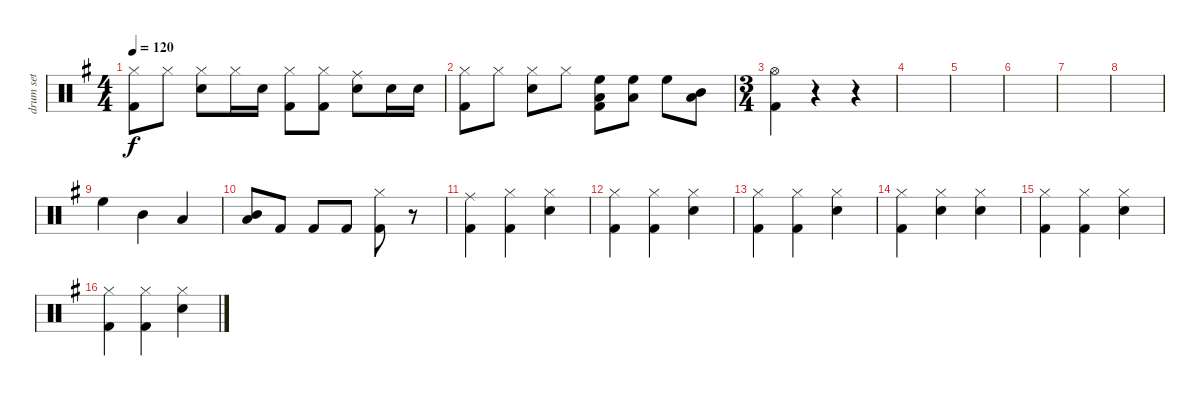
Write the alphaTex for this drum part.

\track ("drum set" "drum set") {instrument percussion}
\staff {score}
\articulation defaults
\ts (4 4)
\tempo 120
\clef neutral
\ks g
("Hi-Hat (closed)" "Kick (hit) 2").8{dy f} "Hi-Hat (closed)".8 ("Hi-Hat (closed)" "Snare (hit) 2").8 "Hi-Hat (closed)".16 "Snare (hit) 2".16 ("Hi-Hat (closed)" "Kick (hit) 2").8 ("Hi-Hat (closed)" "Kick (hit) 2").8 ("Ride (middle)" "Snare (hit) 2").8 "Snare (hit) 2".16 "Snare (hit) 2".16 |
("Hi-Hat (closed)" "Kick (hit) 2").8 "Hi-Hat (closed)".8 ("Hi-Hat (closed)" "Snare (hit) 2").8 "Hi-Hat (closed)".8 ("High Floor Tom (hit)" "Low Tom (hit)" "Kick (hit) 2").8 ("High Floor Tom (hit)" "Low Tom (hit)").8 "High Floor Tom (hit)".8 ("Mid Tom (hit)" "Low Tom (hit)").8 |
\ts (3 4)
("Hi-Hat (open)" "Kick (hit) 2").4 r.4 r.4 |
|
|
|
|
|
"High Floor Tom (hit)".4 "Mid Tom (hit)".4 "Low Tom (hit)".4 |
("Mid Tom (hit)" "Low Tom (hit)").8 "Kick (hit) 2".8 "Kick (hit) 2".8 "Kick (hit) 2".8 ("Hi-Hat (closed)" "Kick (hit) 2").8 r.8 |
("Ride (middle)" "Kick (hit) 2").4 ("Hi-Hat (closed)" "Kick (hit) 2").4 ("Hi-Hat (closed)" "Snare (hit) 2").4 |
("Hi-Hat (closed)" "Kick (hit) 2").4 ("Hi-Hat (closed)" "Kick (hit) 2").4 ("Hi-Hat (closed)" "Snare (hit) 2").4 |
("Hi-Hat (closed)" "Kick (hit) 2").4 ("Hi-Hat (closed)" "Kick (hit) 2").4 ("Hi-Hat (closed)" "Snare (hit) 2").4 |
("Hi-Hat (closed)" "Kick (hit) 2").4 ("Hi-Hat (closed)" "Snare (hit) 2").4 ("Hi-Hat (closed)" "Snare (hit) 2").4 |
("Hi-Hat (closed)" "Kick (hit) 2").4 ("Hi-Hat (closed)" "Kick (hit) 2").4 ("Hi-Hat (closed)" "Snare (hit) 2").4 |
("Hi-Hat (closed)" "Kick (hit) 2").4 ("Hi-Hat (closed)" "Kick (hit) 2").4 ("Hi-Hat (closed)" "Snare (hit) 2").4
